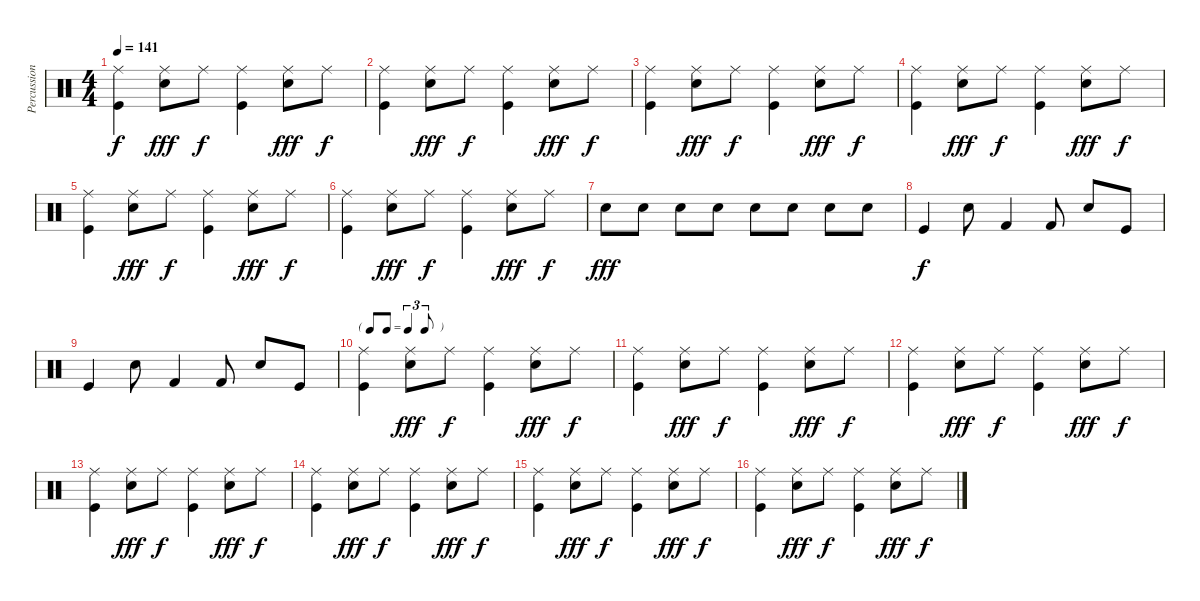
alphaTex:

\track ("Percussions" "Percussion") {mute instrument percussion}
\staff {score}
\articulation defaults
\ts (4 4)
\tempo 141
\clef neutral
\ks c
("Kick (hit)" "Ride (middle)").4{dy f} ("Snare (hit) 2" "Ride (middle)").8{dy fff} "Ride (middle)".8{dy f} ("Kick (hit)" "Ride (middle)").4 ("Snare (hit) 2" "Ride (middle)").8{dy fff} "Ride (middle)".8{dy f} |
("Kick (hit)" "Ride (middle)").4 ("Snare (hit) 2" "Ride (middle)").8{dy fff} "Ride (middle)".8{dy f} ("Kick (hit)" "Ride (middle)").4 ("Snare (hit) 2" "Ride (middle)").8{dy fff} "Ride (middle)".8{dy f} |
("Kick (hit)" "Ride (middle)").4 ("Snare (hit) 2" "Ride (middle)").8{dy fff} "Ride (middle)".8{dy f} ("Kick (hit)" "Ride (middle)").4 ("Snare (hit) 2" "Ride (middle)").8{dy fff} "Ride (middle)".8{dy f} |
("Kick (hit)" "Ride (middle)").4 ("Snare (hit) 2" "Ride (middle)").8{dy fff} "Ride (middle)".8{dy f} ("Kick (hit)" "Ride (middle)").4 ("Snare (hit) 2" "Ride (middle)").8{dy fff} "Ride (middle)".8{dy f} |
("Kick (hit)" "Ride (middle)").4 ("Snare (hit) 2" "Ride (middle)").8{dy fff} "Ride (middle)".8{dy f} ("Kick (hit)" "Ride (middle)").4 ("Snare (hit) 2" "Ride (middle)").8{dy fff} "Ride (middle)".8{dy f} |
("Kick (hit)" "Ride (middle)").4 ("Snare (hit) 2" "Ride (middle)").8{dy fff} "Ride (middle)".8{dy f} ("Kick (hit)" "Ride (middle)").4 ("Snare (hit) 2" "Ride (middle)").8{dy fff} "Ride (middle)".8{dy f} |
"Snare (hit) 2".8{dy fff} "Snare (hit) 2".8 "Snare (hit) 2".8 "Snare (hit) 2".8 "Snare (hit) 2".8 "Snare (hit) 2".8 "Snare (hit) 2".8 "Snare (hit) 2".8 |
"Kick (hit)".4{dy f} "Snare (hit) 2".8 "Kick (hit) 2".4 "Kick (hit) 2".8 "Snare (hit) 2".8 "Kick (hit)".8 |
"Kick (hit)".4 "Snare (hit) 2".8 "Kick (hit) 2".4 "Kick (hit) 2".8 "Snare (hit) 2".8 "Kick (hit)".8 |
\tf triplet8th
("Kick (hit)" "Ride (middle)").4 ("Snare (hit) 2" "Ride (middle)").8{dy fff} "Ride (middle)".8{dy f} ("Kick (hit)" "Ride (middle)").4 ("Snare (hit) 2" "Ride (middle)").8{dy fff} "Ride (middle)".8{dy f} |
("Kick (hit)" "Ride (middle)").4 ("Snare (hit) 2" "Ride (middle)").8{dy fff} "Ride (middle)".8{dy f} ("Kick (hit)" "Ride (middle)").4 ("Snare (hit) 2" "Ride (middle)").8{dy fff} "Ride (middle)".8{dy f} |
("Kick (hit)" "Ride (middle)").4 ("Snare (hit) 2" "Ride (middle)").8{dy fff} "Ride (middle)".8{dy f} ("Kick (hit)" "Ride (middle)").4 ("Snare (hit) 2" "Ride (middle)").8{dy fff} "Ride (middle)".8{dy f} |
("Kick (hit)" "Ride (middle)").4 ("Snare (hit) 2" "Ride (middle)").8{dy fff} "Ride (middle)".8{dy f} ("Kick (hit)" "Ride (middle)").4 ("Snare (hit) 2" "Ride (middle)").8{dy fff} "Ride (middle)".8{dy f} |
("Kick (hit)" "Ride (middle)").4 ("Snare (hit) 2" "Ride (middle)").8{dy fff} "Ride (middle)".8{dy f} ("Kick (hit)" "Ride (middle)").4 ("Snare (hit) 2" "Ride (middle)").8{dy fff} "Ride (middle)".8{dy f} |
("Kick (hit)" "Ride (middle)").4 ("Snare (hit) 2" "Ride (middle)").8{dy fff} "Ride (middle)".8{dy f} ("Kick (hit)" "Ride (middle)").4 ("Snare (hit) 2" "Ride (middle)").8{dy fff} "Ride (middle)".8{dy f} |
("Kick (hit)" "Ride (middle)").4 ("Snare (hit) 2" "Ride (middle)").8{dy fff} "Ride (middle)".8{dy f} ("Kick (hit)" "Ride (middle)").4 ("Snare (hit) 2" "Ride (middle)").8{dy fff} "Ride (middle)".8{dy f}
